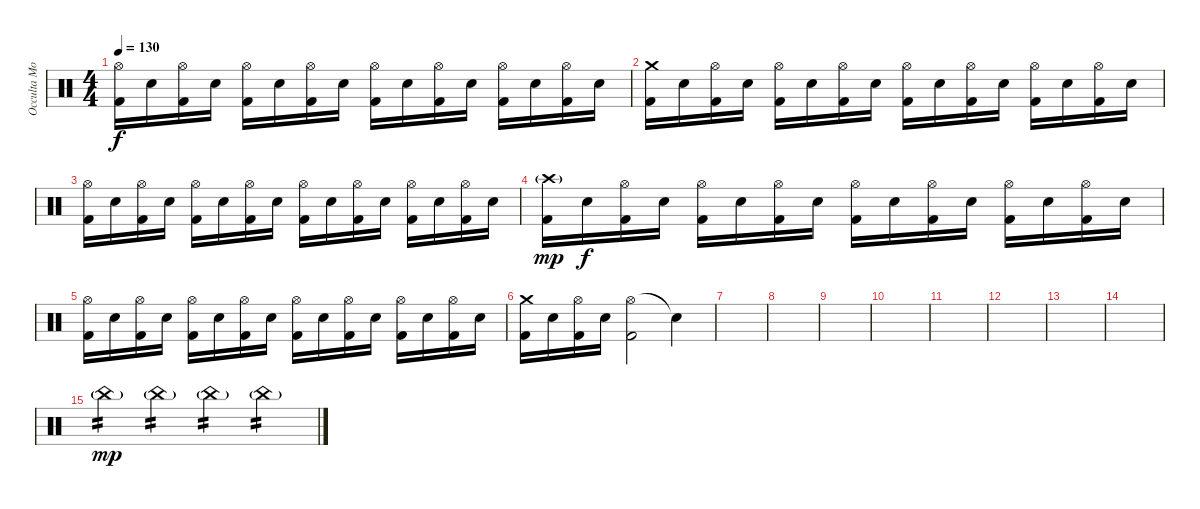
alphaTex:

\track ("Occulta Mors" "Occulta Mo") {instrument percussion}
\staff {score}
\articulation defaults
\ts (4 4)
\tempo 130
\clef neutral
\ks c
("Hi-Hat (open)" "Kick (hit) 2").16{dy f} "Snare (hit) 2".16 ("Hi-Hat (open)" "Kick (hit) 2").16 "Snare (hit) 2".16 ("Hi-Hat (open)" "Kick (hit) 2").16 "Snare (hit) 2".16 ("Hi-Hat (open)" "Kick (hit) 2").16 "Snare (hit) 2".16 ("Hi-Hat (open)" "Kick (hit) 2").16 "Snare (hit) 2".16 ("Hi-Hat (open)" "Kick (hit) 2").16 "Snare (hit) 2".16 ("Hi-Hat (open)" "Kick (hit) 2").16 "Snare (hit) 2".16 ("Hi-Hat (open)" "Kick (hit) 2").16 "Snare (hit) 2".16 |
("Crash medium (hit)" "Kick (hit) 2").16 "Snare (hit) 2".16 ("Hi-Hat (open)" "Kick (hit) 2").16 "Snare (hit) 2".16 ("Hi-Hat (open)" "Kick (hit) 2").16 "Snare (hit) 2".16 ("Hi-Hat (open)" "Kick (hit) 2").16 "Snare (hit) 2".16 ("Hi-Hat (open)" "Kick (hit) 2").16 "Snare (hit) 2".16 ("Hi-Hat (open)" "Kick (hit) 2").16 "Snare (hit) 2".16 ("Hi-Hat (open)" "Kick (hit) 2").16 "Snare (hit) 2".16 ("Hi-Hat (open)" "Kick (hit) 2").16 "Snare (hit) 2".16 |
("Hi-Hat (open)" "Kick (hit) 2").16 "Snare (hit) 2".16 ("Hi-Hat (open)" "Kick (hit) 2").16 "Snare (hit) 2".16 ("Hi-Hat (open)" "Kick (hit) 2").16 "Snare (hit) 2".16 ("Hi-Hat (open)" "Kick (hit) 2").16 "Snare (hit) 2".16 ("Hi-Hat (open)" "Kick (hit) 2").16 "Snare (hit) 2".16 ("Hi-Hat (open)" "Kick (hit) 2").16 "Snare (hit) 2".16 ("Hi-Hat (open)" "Kick (hit) 2").16 "Snare (hit) 2".16 ("Hi-Hat (open)" "Kick (hit) 2").16 "Snare (hit) 2".16 |
("Crash high (hit)"{g} "Kick (hit) 2").16{dy mp} "Snare (hit) 2".16{dy f} ("Hi-Hat (open)" "Kick (hit) 2").16 "Snare (hit) 2".16 ("Hi-Hat (open)" "Kick (hit) 2").16 "Snare (hit) 2".16 ("Hi-Hat (open)" "Kick (hit) 2").16 "Snare (hit) 2".16 ("Hi-Hat (open)" "Kick (hit) 2").16 "Snare (hit) 2".16 ("Hi-Hat (open)" "Kick (hit) 2").16 "Snare (hit) 2".16 ("Hi-Hat (open)" "Kick (hit) 2").16 "Snare (hit) 2".16 ("Hi-Hat (open)" "Kick (hit) 2").16 "Snare (hit) 2".16 |
("Hi-Hat (open)" "Kick (hit) 2").16 "Snare (hit) 2".16 ("Hi-Hat (open)" "Kick (hit) 2").16 "Snare (hit) 2".16 ("Hi-Hat (open)" "Kick (hit) 2").16 "Snare (hit) 2".16 ("Hi-Hat (open)" "Kick (hit) 2").16 "Snare (hit) 2".16 ("Hi-Hat (open)" "Kick (hit) 2").16 "Snare (hit) 2".16 ("Hi-Hat (open)" "Kick (hit) 2").16 "Snare (hit) 2".16 ("Hi-Hat (open)" "Kick (hit) 2").16 "Snare (hit) 2".16 ("Hi-Hat (open)" "Kick (hit) 2").16 "Snare (hit) 2".16 |
("Crash medium (hit)" "Kick (hit) 2").16 "Snare (hit) 2".16 ("Hi-Hat (open)" "Kick (hit) 2").16 "Snare (hit) 2".16 ("Hi-Hat (open)" "Kick (hit) 2").2 "Snare (hit)"{t}.4 |
|
|
|
|
|
|
|
|
"China (hit)"{g}.4{tp 2 dy mp} "China (hit)"{g}.4{tp 2 volume 10} "China (hit)"{g}.4{tp 2 volume 8} "China (hit)"{g}.4{tp 2 volume 6}
